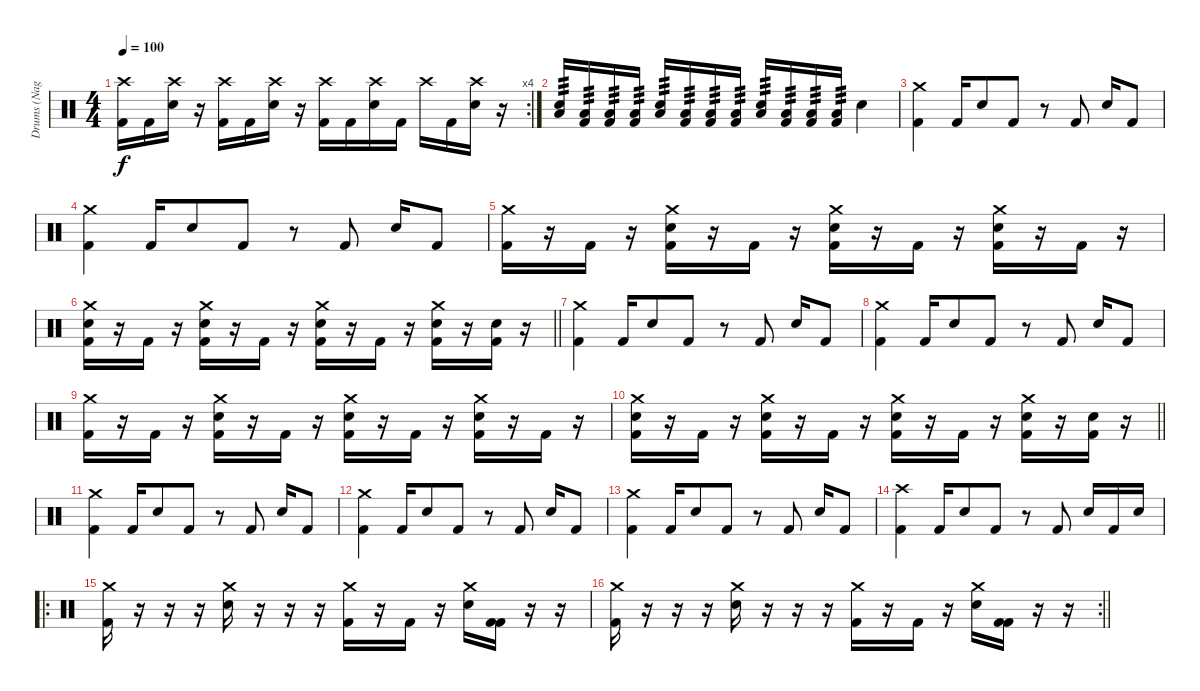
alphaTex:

\track ("Drums (Nagy Dávid)" "Drums (Nag") {instrument percussion}
\staff {score}
\articulation defaults
\rc 4
\ts (4 4)
\tempo 100
\clef neutral
\ks c
("Kick (hit) 2" "Crash high (hit)").16{dy f} "Kick (hit) 2".16 ("Electric Snare (hit)" "Crash high (hit)").16 r.16 ("Kick (hit) 2" "Crash high (hit)").16 "Kick (hit) 2".16 ("Electric Snare (hit)" "Crash high (hit)").16 r.16 ("Kick (hit) 2" "Crash high (hit)").16 "Kick (hit) 2".16 ("Electric Snare (hit)" "Crash high (hit)").16 "Kick (hit) 2".16 "Crash high (hit)".16 "Kick (hit) 2".16 ("Electric Snare (hit)" "Crash high (hit)").16 r.16 |
("Electric Snare (hit)" "Low Floor Tom (hit)").16{tp 3} ("Kick (hit) 2" "Low Tom (hit)").16{tp 3} ("Kick (hit) 2" "Low Tom (hit)").16{tp 3} ("Kick (hit) 2" "Low Floor Tom (hit)").16{tp 3} ("Electric Snare (hit)" "Low Floor Tom (hit)").16{tp 3} ("Kick (hit) 2" "Low Tom (hit)").16{tp 3} ("Kick (hit) 2" "Low Tom (hit)").16{tp 3} ("Kick (hit) 2" "Low Floor Tom (hit)").16{tp 3} ("Electric Snare (hit)" "Low Floor Tom (hit)").16{tp 3} ("Kick (hit) 2" "Low Tom (hit)").16{tp 3} ("Kick (hit) 2" "Low Tom (hit)").16{tp 3} ("Kick (hit) 2" "Low Floor Tom (hit)").16{tp 3} "Electric Snare (hit)".4 |
("Kick (hit) 2" "Crash medium (hit)").4 "Kick (hit) 2".16 "Electric Snare (hit)".8 "Kick (hit) 2".8 r.8 "Kick (hit) 2".8 "Electric Snare (hit)".16 "Kick (hit) 2".8 |
("Kick (hit) 2" "Crash medium (hit)").4 "Kick (hit) 2".16 "Electric Snare (hit)".8 "Kick (hit) 2".8 r.8 "Kick (hit) 2".8 "Electric Snare (hit)".16 "Kick (hit) 2".8 |
("Kick (hit) 2" "Crash medium (hit)").16 r.16 "Kick (hit) 2".16 r.16 ("Kick (hit) 2" "Electric Snare (hit)" "Crash medium (hit)").16 r.16 "Kick (hit) 2".16 r.16 ("Kick (hit) 2" "Electric Snare (hit)" "Crash medium (hit)").16 r.16 "Kick (hit) 2".16 r.16 ("Kick (hit) 2" "Electric Snare (hit)" "Crash medium (hit)").16 r.16 "Kick (hit) 2".16 r.16 |
\barLineRight lightlight
("Kick (hit) 2" "Electric Snare (hit)" "Crash medium (hit)").16 r.16 "Kick (hit) 2".16 r.16 ("Kick (hit) 2" "Electric Snare (hit)" "Crash medium (hit)").16 r.16 "Kick (hit) 2".16 r.16 ("Kick (hit) 2" "Electric Snare (hit)" "Crash medium (hit)").16 r.16 "Kick (hit) 2".16 r.16 ("Kick (hit) 2" "Electric Snare (hit)" "Crash medium (hit)").16 r.16 ("Kick (hit) 2" "Electric Snare (hit)").16 r.16 |
("Kick (hit) 2" "Crash medium (hit)").4 "Kick (hit) 2".16 "Electric Snare (hit)".8 "Kick (hit) 2".8 r.8 "Kick (hit) 2".8 "Electric Snare (hit)".16 "Kick (hit) 2".8 |
("Kick (hit) 2" "Crash medium (hit)").4 "Kick (hit) 2".16 "Electric Snare (hit)".8 "Kick (hit) 2".8 r.8 "Kick (hit) 2".8 "Electric Snare (hit)".16 "Kick (hit) 2".8 |
("Kick (hit) 2" "Crash medium (hit)").16 r.16 "Kick (hit) 2".16 r.16 ("Kick (hit) 2" "Electric Snare (hit)" "Crash medium (hit)").16 r.16 "Kick (hit) 2".16 r.16 ("Kick (hit) 2" "Electric Snare (hit)" "Crash medium (hit)").16 r.16 "Kick (hit) 2".16 r.16 ("Kick (hit) 2" "Electric Snare (hit)" "Crash medium (hit)").16 r.16 "Kick (hit) 2".16 r.16 |
\barLineRight lightlight
("Kick (hit) 2" "Electric Snare (hit)" "Crash medium (hit)").16 r.16 "Kick (hit) 2".16 r.16 ("Kick (hit) 2" "Electric Snare (hit)" "Crash medium (hit)").16 r.16 "Kick (hit) 2".16 r.16 ("Kick (hit) 2" "Electric Snare (hit)" "Crash medium (hit)").16 r.16 "Kick (hit) 2".16 r.16 ("Kick (hit) 2" "Electric Snare (hit)" "Crash medium (hit)").16 r.16 ("Kick (hit) 2" "Electric Snare (hit)").16 r.16 |
("Kick (hit) 2" "Crash medium (hit)").4 "Kick (hit) 2".16 "Electric Snare (hit)".8 "Kick (hit) 2".8 r.8 "Kick (hit) 2".8 "Electric Snare (hit)".16 "Kick (hit) 2".8 |
("Kick (hit) 2" "Crash medium (hit)").4 "Kick (hit) 2".16 "Electric Snare (hit)".8 "Kick (hit) 2".8 r.8 "Kick (hit) 2".8 "Electric Snare (hit)".16 "Kick (hit) 2".8 |
("Kick (hit) 2" "Crash medium (hit)").4 "Kick (hit) 2".16 "Electric Snare (hit)".8 "Kick (hit) 2".8 r.8 "Kick (hit) 2".8 "Electric Snare (hit)".16 "Kick (hit) 2".8 |
("Kick (hit) 2" "Crash high (hit)").4 "Kick (hit) 2".16 "Electric Snare (hit)".8 "Kick (hit) 2".8 r.8 "Kick (hit) 2".8 "Electric Snare (hit)".16 "Kick (hit) 2".16 "Electric Snare (hit)".16 |
\ro
("Kick (hit) 2" "Crash medium (hit)").16 r.16 r.16 r.16 ("Electric Snare (hit)" "Crash medium (hit)").16 r.16 r.16 r.16 ("Kick (hit) 2" "Crash medium (hit)").16 r.16 "Kick (hit) 2".16 r.16 ("Electric Snare (hit)" "Crash medium (hit)").16 ("Kick (hit) 2" "Kick (hit) 2").16 r.16 r.16 |
\rc 2
\barLineRight lightlight
("Kick (hit) 2" "Crash medium (hit)").16 r.16 r.16 r.16 ("Electric Snare (hit)" "Crash medium (hit)").16 r.16 r.16 r.16 ("Kick (hit) 2" "Crash medium (hit)").16 r.16 "Kick (hit) 2".16 r.16 ("Electric Snare (hit)" "Crash medium (hit)").16 ("Kick (hit) 2" "Kick (hit) 2").16 r.16 r.16
